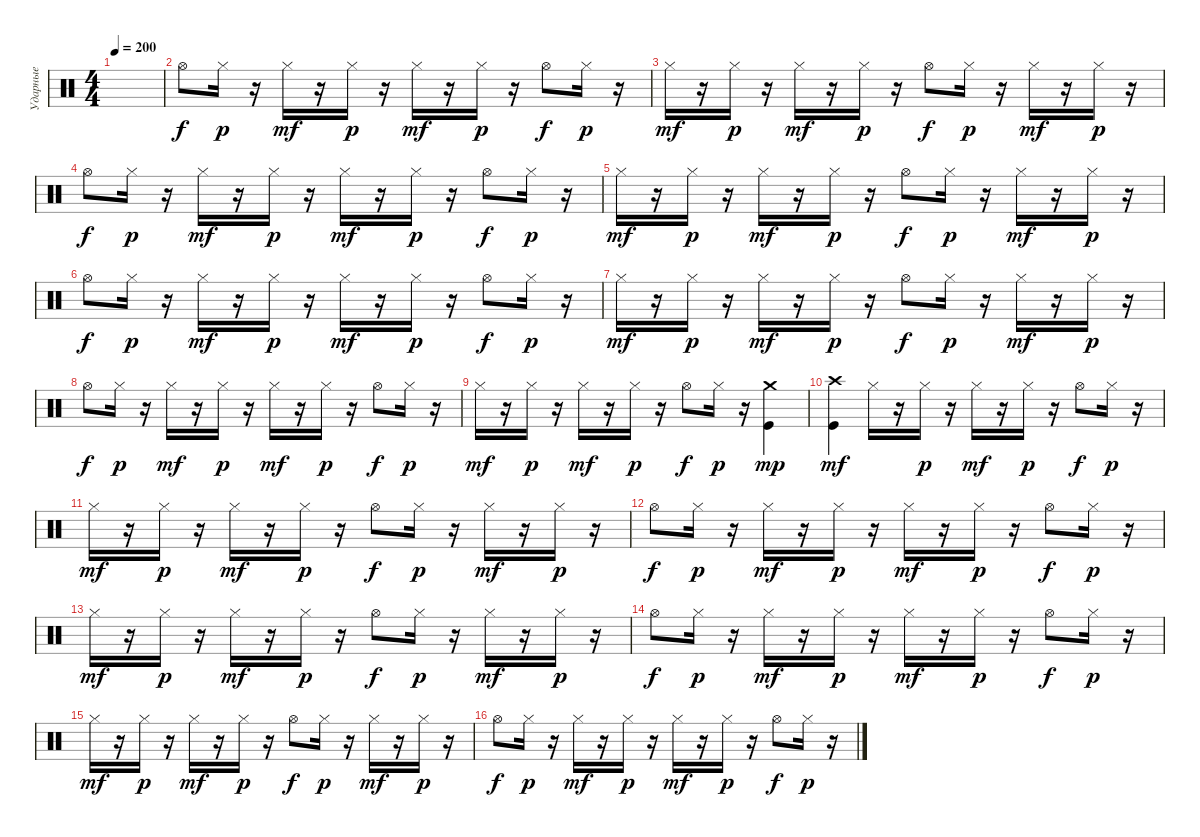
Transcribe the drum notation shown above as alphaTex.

\track ("Ударные" "Ударные") {instrument percussion}
\staff {score}
\articulation defaults
\ts (4 4)
\tempo 200
\clef neutral
\ks c
|
"Hi-Hat (open)".8 "Hi-Hat (closed)".16{dy p} r.16 "Hi-Hat (closed)".16{dy mf} r.16 "Hi-Hat (closed)".16{dy p} r.16 "Hi-Hat (closed)".16{dy mf} r.16 "Hi-Hat (closed)".16{dy p} r.16 "Hi-Hat (open)".8{dy f} "Hi-Hat (closed)".16{dy p} r.16 |
"Hi-Hat (closed)".16{dy mf} r.16 "Hi-Hat (closed)".16{dy p} r.16 "Hi-Hat (closed)".16{dy mf} r.16 "Hi-Hat (closed)".16{dy p} r.16 "Hi-Hat (open)".8{dy f} "Hi-Hat (closed)".16{dy p} r.16 "Hi-Hat (closed)".16{dy mf} r.16 "Hi-Hat (closed)".16{dy p} r.16 |
"Hi-Hat (open)".8{dy f} "Hi-Hat (closed)".16{dy p} r.16 "Hi-Hat (closed)".16{dy mf} r.16 "Hi-Hat (closed)".16{dy p} r.16 "Hi-Hat (closed)".16{dy mf} r.16 "Hi-Hat (closed)".16{dy p} r.16 "Hi-Hat (open)".8{dy f} "Hi-Hat (closed)".16{dy p} r.16 |
"Hi-Hat (closed)".16{dy mf} r.16 "Hi-Hat (closed)".16{dy p} r.16 "Hi-Hat (closed)".16{dy mf} r.16 "Hi-Hat (closed)".16{dy p} r.16 "Hi-Hat (open)".8{dy f} "Hi-Hat (closed)".16{dy p} r.16 "Hi-Hat (closed)".16{dy mf} r.16 "Hi-Hat (closed)".16{dy p} r.16 |
"Hi-Hat (open)".8{dy f} "Hi-Hat (closed)".16{dy p} r.16 "Hi-Hat (closed)".16{dy mf} r.16 "Hi-Hat (closed)".16{dy p} r.16 "Hi-Hat (closed)".16{dy mf} r.16 "Hi-Hat (closed)".16{dy p} r.16 "Hi-Hat (open)".8{dy f} "Hi-Hat (closed)".16{dy p} r.16 |
"Hi-Hat (closed)".16{dy mf} r.16 "Hi-Hat (closed)".16{dy p} r.16 "Hi-Hat (closed)".16{dy mf} r.16 "Hi-Hat (closed)".16{dy p} r.16 "Hi-Hat (open)".8{dy f} "Hi-Hat (closed)".16{dy p} r.16 "Hi-Hat (closed)".16{dy mf} r.16 "Hi-Hat (closed)".16{dy p} r.16 |
"Hi-Hat (open)".8{dy f} "Hi-Hat (closed)".16{dy p} r.16 "Hi-Hat (closed)".16{dy mf} r.16 "Hi-Hat (closed)".16{dy p} r.16 "Hi-Hat (closed)".16{dy mf} r.16 "Hi-Hat (closed)".16{dy p} r.16 "Hi-Hat (open)".8{dy f} "Hi-Hat (closed)".16{dy p} r.16 |
"Hi-Hat (closed)".16{dy mf} r.16 "Hi-Hat (closed)".16{dy p} r.16 "Hi-Hat (closed)".16{dy mf} r.16 "Hi-Hat (closed)".16{dy p} r.16 "Hi-Hat (open)".8{dy f} "Hi-Hat (closed)".16{dy p} r.16 ("Crash medium (hit)" "Kick (hit)").4{dy mp} |
("Crash high (hit)" "Kick (hit)").4{dy mf} "Hi-Hat (closed)".16 r.16 "Hi-Hat (closed)".16{dy p} r.16 "Hi-Hat (closed)".16{dy mf} r.16 "Hi-Hat (closed)".16{dy p} r.16 "Hi-Hat (open)".8{dy f} "Hi-Hat (closed)".16{dy p} r.16 |
"Hi-Hat (closed)".16{dy mf} r.16 "Hi-Hat (closed)".16{dy p} r.16 "Hi-Hat (closed)".16{dy mf} r.16 "Hi-Hat (closed)".16{dy p} r.16 "Hi-Hat (open)".8{dy f} "Hi-Hat (closed)".16{dy p} r.16 "Hi-Hat (closed)".16{dy mf} r.16 "Hi-Hat (closed)".16{dy p} r.16 |
"Hi-Hat (open)".8{dy f} "Hi-Hat (closed)".16{dy p} r.16 "Hi-Hat (closed)".16{dy mf} r.16 "Hi-Hat (closed)".16{dy p} r.16 "Hi-Hat (closed)".16{dy mf} r.16 "Hi-Hat (closed)".16{dy p} r.16 "Hi-Hat (open)".8{dy f} "Hi-Hat (closed)".16{dy p} r.16 |
"Hi-Hat (closed)".16{dy mf} r.16 "Hi-Hat (closed)".16{dy p} r.16 "Hi-Hat (closed)".16{dy mf} r.16 "Hi-Hat (closed)".16{dy p} r.16 "Hi-Hat (open)".8{dy f} "Hi-Hat (closed)".16{dy p} r.16 "Hi-Hat (closed)".16{dy mf} r.16 "Hi-Hat (closed)".16{dy p} r.16 |
"Hi-Hat (open)".8{dy f} "Hi-Hat (closed)".16{dy p} r.16 "Hi-Hat (closed)".16{dy mf} r.16 "Hi-Hat (closed)".16{dy p} r.16 "Hi-Hat (closed)".16{dy mf} r.16 "Hi-Hat (closed)".16{dy p} r.16 "Hi-Hat (open)".8{dy f} "Hi-Hat (closed)".16{dy p} r.16 |
"Hi-Hat (closed)".16{dy mf} r.16 "Hi-Hat (closed)".16{dy p} r.16 "Hi-Hat (closed)".16{dy mf} r.16 "Hi-Hat (closed)".16{dy p} r.16 "Hi-Hat (open)".8{dy f} "Hi-Hat (closed)".16{dy p} r.16 "Hi-Hat (closed)".16{dy mf} r.16 "Hi-Hat (closed)".16{dy p} r.16 |
"Hi-Hat (open)".8{dy f} "Hi-Hat (closed)".16{dy p} r.16 "Hi-Hat (closed)".16{dy mf} r.16 "Hi-Hat (closed)".16{dy p} r.16 "Hi-Hat (closed)".16{dy mf} r.16 "Hi-Hat (closed)".16{dy p} r.16 "Hi-Hat (open)".8{dy f} "Hi-Hat (closed)".16{dy p} r.16
